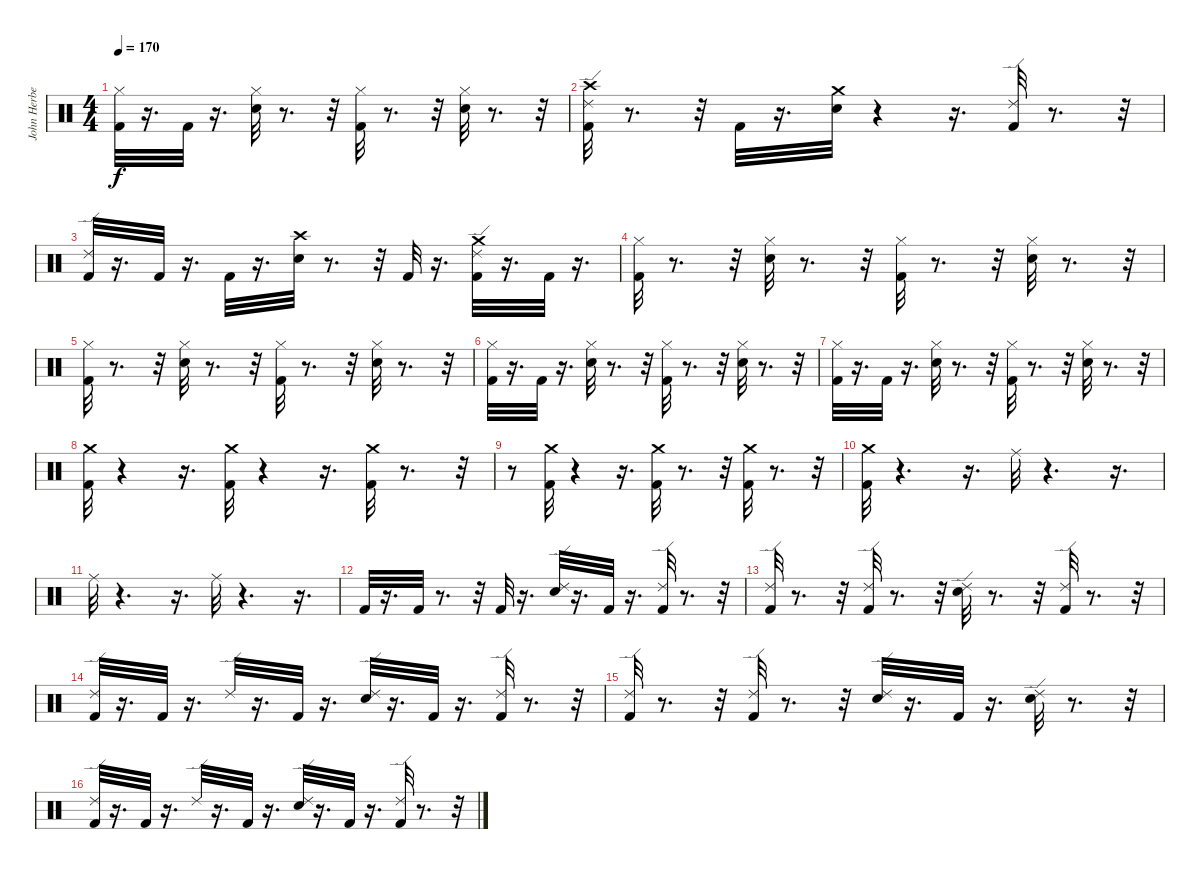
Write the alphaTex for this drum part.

\track ("John Herbert" "John Herbe") {instrument percussion}
\staff {score}
\articulation defaults
\ts (4 4)
\tempo 170
\clef neutral
\ks c
("Hi-Hat (closed)" "Kick (hit) 2").32{dy f} r.16{d} "Kick (hit) 2".32 r.16{d} ("Hi-Hat (closed)" "Snare (hit) 2").32 r.8{d} r.32 ("Hi-Hat (closed)" "Kick (hit) 2").32 r.8{d} r.32 ("Hi-Hat (closed)" "Snare (hit) 2").32 r.8{d} r.32 |
("Ride (edge) 2" "Crash high (hit)" "Kick (hit) 2").32 r.8{d} r.32 "Kick (hit) 2".32 r.16{d} ("Crash medium (hit)" "Snare (hit) 2").32 r.4 r.16{d} ("Ride (edge) 2" "Kick (hit) 2").32 r.8{d} r.32 |
("Ride (edge) 2" "Kick (hit) 2").32 r.16{d} "Kick (hit) 2".32 r.16{d} "Kick (hit) 2".32 r.16{d} ("Crash high (hit)" "Snare (hit) 2").32 r.8{d} r.32 "Kick (hit) 2".32 r.16{d} ("Ride (edge) 2" "Crash medium (hit)" "Kick (hit) 2").32 r.16{d} "Kick (hit) 2".32 r.16{d} |
("Hi-Hat (closed)" "Kick (hit) 2").32 r.8{d} r.32 ("Hi-Hat (closed)" "Snare (hit) 2").32 r.8{d} r.32 ("Hi-Hat (closed)" "Kick (hit) 2").32 r.8{d} r.32 ("Hi-Hat (closed)" "Snare (hit) 2").32 r.8{d} r.32 |
("Hi-Hat (closed)" "Kick (hit) 2").32 r.8{d} r.32 ("Hi-Hat (closed)" "Snare (hit) 2").32 r.8{d} r.32 ("Hi-Hat (closed)" "Kick (hit) 2").32 r.8{d} r.32 ("Hi-Hat (closed)" "Snare (hit) 2").32 r.8{d} r.32 |
("Hi-Hat (closed)" "Kick (hit) 2").32 r.16{d} "Kick (hit) 2".32 r.16{d} ("Hi-Hat (closed)" "Snare (hit) 2").32 r.8{d} r.32 ("Hi-Hat (closed)" "Kick (hit) 2").32 r.8{d} r.32 ("Hi-Hat (closed)" "Snare (hit) 2").32 r.8{d} r.32 |
("Hi-Hat (closed)" "Kick (hit) 2").32 r.16{d} "Kick (hit) 2".32 r.16{d} ("Hi-Hat (closed)" "Snare (hit) 2").32 r.8{d} r.32 ("Hi-Hat (closed)" "Kick (hit) 2").32 r.8{d} r.32 ("Hi-Hat (closed)" "Snare (hit) 2").32 r.8{d} r.32 |
("Kick (hit) 2" "Crash medium (hit)").32 r.4 r.16{d} ("Kick (hit) 2" "Crash medium (hit)").32 r.4 r.16{d} ("Kick (hit) 2" "Crash medium (hit)").32 r.8{d} r.32 |
r.8 ("Kick (hit) 2" "Crash medium (hit)").32 r.4 r.16{d} ("Kick (hit) 2" "Crash medium (hit)").32 r.8{d} r.32 ("Kick (hit) 2" "Crash medium (hit)").32 r.8{d} r.32 |
("Kick (hit) 2" "Crash medium (hit)").32 r.4{d} r.16{d} "Ride (middle)".32 r.4{d} r.16{d} |
"Ride (middle)".32 r.4{d} r.16{d} "Ride (middle)".32 r.4{d} r.16{d} |
"Kick (hit) 2".32 r.16{d} "Kick (hit) 2".32 r.8{d} r.32 "Kick (hit) 2".32 r.16{d} ("Ride (edge) 2" "Snare (hit) 2").32 r.16{d} "Kick (hit) 2".32 r.16{d} ("Ride (edge) 2" "Kick (hit) 2").32 r.8{d} r.32 |
("Ride (edge) 2" "Kick (hit) 2").32 r.8{d} r.32 ("Ride (edge) 2" "Kick (hit) 2").32 r.8{d} r.32 ("Ride (edge) 2" "Snare (hit) 2").32 r.8{d} r.32 ("Kick (hit) 2" "Ride (edge) 2").32 r.8{d} r.32 |
("Ride (edge) 2" "Kick (hit) 2").32 r.16{d} "Kick (hit) 2".32 r.16{d} "Ride (edge) 2".32 r.16{d} "Kick (hit) 2".32 r.16{d} ("Ride (edge) 2" "Snare (hit) 2").32 r.16{d} "Kick (hit) 2".32 r.16{d} ("Ride (edge) 2" "Kick (hit) 2").32 r.8{d} r.32 |
("Ride (edge) 2" "Kick (hit) 2").32 r.8{d} r.32 ("Kick (hit) 2" "Ride (edge) 2").32 r.8{d} r.32 ("Snare (hit) 2" "Ride (edge) 2").32 r.16{d} "Kick (hit) 2".32 r.16{d} ("Snare (hit) 2" "Ride (edge) 2").32 r.8{d} r.32 |
("Ride (edge) 2" "Kick (hit) 2").32 r.16{d} "Kick (hit) 2".32 r.16{d} "Ride (edge) 2".32 r.16{d} "Kick (hit) 2".32 r.16{d} ("Ride (edge) 2" "Snare (hit) 2").32 r.16{d} "Kick (hit) 2".32 r.16{d} ("Ride (edge) 2" "Kick (hit) 2").32 r.8{d} r.32
